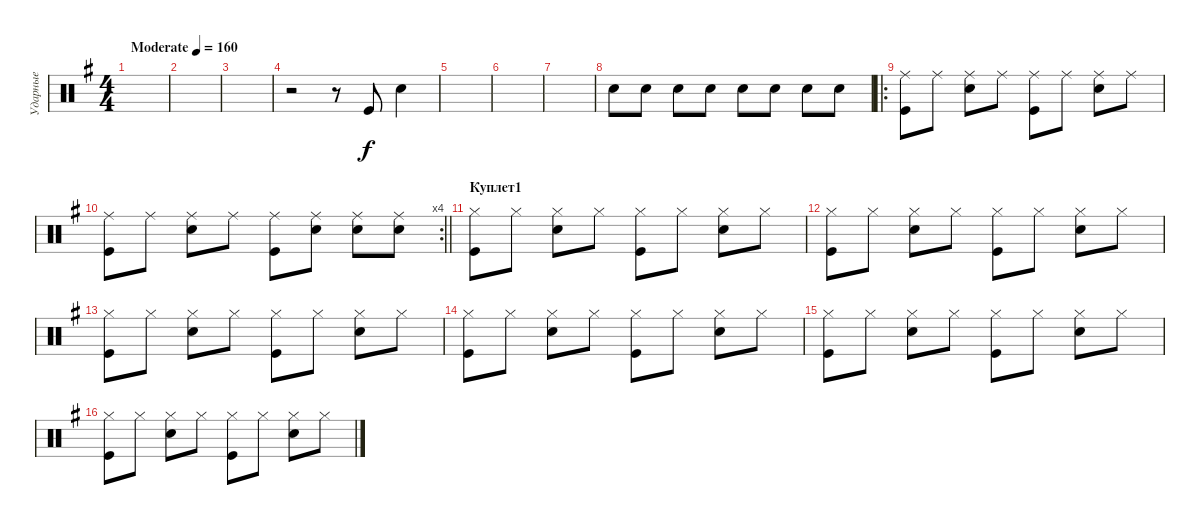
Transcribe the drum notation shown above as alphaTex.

\track ("Ударные" "Ударные") {instrument percussion}
\staff {score}
\articulation defaults
\ts (4 4)
\tempo (160 "Moderate")
\clef neutral
\ks eminor
|
|
|
r.2 r.8 "Kick (hit)".8 "Electric Snare (hit)".4 |
|
|
|
"Electric Snare (hit)".8 "Electric Snare (hit)".8 "Electric Snare (hit)".8 "Electric Snare (hit)".8 "Electric Snare (hit)".8 "Electric Snare (hit)".8 "Electric Snare (hit)".8 "Electric Snare (hit)".8 |
\ro
("Ride (middle)" "Kick (hit)").8 "Ride (middle)".8 ("Ride (middle)" "Electric Snare (hit)").8 "Ride (middle)".8 ("Ride (middle)" "Kick (hit)").8 "Ride (middle)".8 ("Ride (middle)" "Electric Snare (hit)").8 "Ride (middle)".8 |
\rc 4
\barLineRight lightlight
("Ride (middle)" "Kick (hit)").8 "Ride (middle)".8 ("Ride (middle)" "Electric Snare (hit)").8 "Ride (middle)".8 ("Ride (middle)" "Kick (hit)").8 ("Ride (middle)" "Electric Snare (hit)").8 ("Ride (middle)" "Electric Snare (hit)").8 ("Ride (middle)" "Electric Snare (hit)").8 |
\section ("" "Куплет1")
("Hi-Hat (closed)" "Kick (hit)").8 "Hi-Hat (closed)".8 ("Hi-Hat (closed)" "Electric Snare (hit)").8 "Hi-Hat (closed)".8 ("Hi-Hat (closed)" "Kick (hit)").8 "Hi-Hat (closed)".8 ("Hi-Hat (closed)" "Electric Snare (hit)").8 "Hi-Hat (closed)".8 |
("Hi-Hat (closed)" "Kick (hit)").8 "Hi-Hat (closed)".8 ("Hi-Hat (closed)" "Electric Snare (hit)").8 "Hi-Hat (closed)".8 ("Hi-Hat (closed)" "Kick (hit)").8 "Hi-Hat (closed)".8 ("Hi-Hat (closed)" "Electric Snare (hit)").8 "Hi-Hat (closed)".8 |
("Hi-Hat (closed)" "Kick (hit)").8 "Hi-Hat (closed)".8 ("Hi-Hat (closed)" "Electric Snare (hit)").8 "Hi-Hat (closed)".8 ("Hi-Hat (closed)" "Kick (hit)").8 "Hi-Hat (closed)".8 ("Hi-Hat (closed)" "Electric Snare (hit)").8 "Hi-Hat (closed)".8 |
("Hi-Hat (closed)" "Kick (hit)").8 "Hi-Hat (closed)".8 ("Hi-Hat (closed)" "Electric Snare (hit)").8 "Hi-Hat (closed)".8 ("Hi-Hat (closed)" "Kick (hit)").8 "Hi-Hat (closed)".8 ("Hi-Hat (closed)" "Electric Snare (hit)").8 "Hi-Hat (closed)".8 |
("Hi-Hat (closed)" "Kick (hit)").8 "Hi-Hat (closed)".8 ("Hi-Hat (closed)" "Electric Snare (hit)").8 "Hi-Hat (closed)".8 ("Hi-Hat (closed)" "Kick (hit)").8 "Hi-Hat (closed)".8 ("Hi-Hat (closed)" "Electric Snare (hit)").8 "Hi-Hat (closed)".8 |
("Hi-Hat (closed)" "Kick (hit)").8 "Hi-Hat (closed)".8 ("Hi-Hat (closed)" "Electric Snare (hit)").8 "Hi-Hat (closed)".8 ("Hi-Hat (closed)" "Kick (hit)").8 "Hi-Hat (closed)".8 ("Hi-Hat (closed)" "Electric Snare (hit)").8 "Hi-Hat (closed)".8
